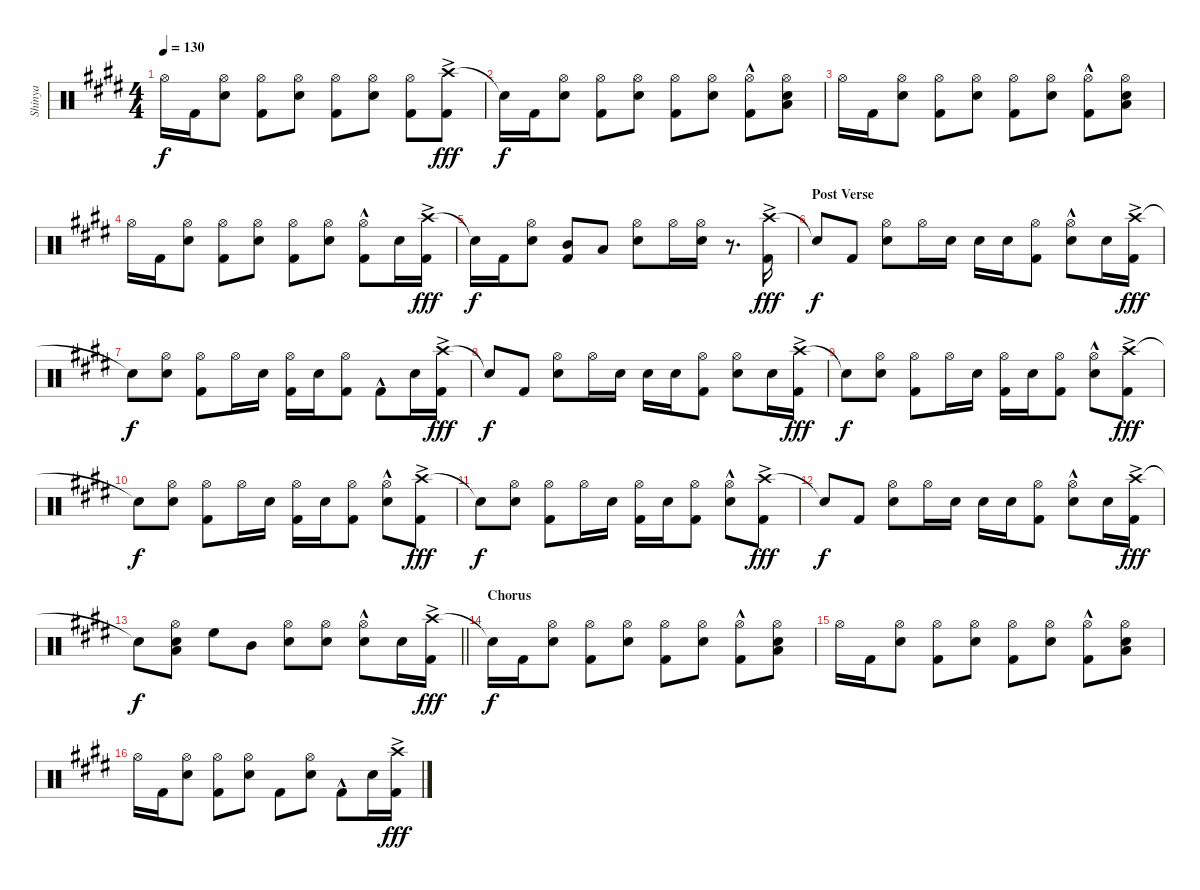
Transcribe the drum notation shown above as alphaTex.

\track ("Shinya" "Shinya") {instrument percussion}
\staff {score}
\articulation defaults
\ts (4 4)
\tempo 130
\clef neutral
\ks e "Hi-Hat (open)".16{dy f} "Kick (hit) 2".16
("Hi-Hat (open)" "Snare (hit) 2").8 ("Hi-Hat (open)" "Kick (hit) 2").8 ("Hi-Hat (open)" "Snare (hit) 2").8 ("Hi-Hat (open)" "Kick (hit) 2").8 ("Hi-Hat (open)" "Snare (hit) 2").8 ("Hi-Hat (open)" "Kick (hit) 2").8 ("Crash high (hit)"{ac} "Kick (hit) 2").8{dy fff} |
"Snare (hit)"{t}.16{dy f} "Kick (hit) 2".16 ("Hi-Hat (open)" "Snare (hit) 2").8 ("Hi-Hat (open)" "Kick (hit) 2").8 ("Hi-Hat (open)" "Snare (hit) 2").8 ("Hi-Hat (open)" "Kick (hit) 2").8 ("Hi-Hat (open)" "Snare (hit) 2").8 ("Hi-Hat (open)"{hac} "Kick (hit) 2").8 ("Hi-Hat (open)" "Low Floor Tom (hit)" "Snare (hit) 2").8 |
"Hi-Hat (open)".16 "Kick (hit) 2".16 ("Hi-Hat (open)" "Snare (hit) 2").8 ("Hi-Hat (open)" "Kick (hit) 2").8 ("Hi-Hat (open)" "Snare (hit) 2").8 ("Hi-Hat (open)" "Kick (hit) 2").8 ("Hi-Hat (open)" "Snare (hit) 2").8 ("Hi-Hat (open)"{hac} "Kick (hit) 2").8 ("Hi-Hat (open)" "Low Floor Tom (hit)" "Snare (hit) 2").8 |
"Hi-Hat (open)".16 "Kick (hit) 2".16 ("Hi-Hat (open)" "Snare (hit) 2").8 ("Hi-Hat (open)" "Kick (hit) 2").8 ("Hi-Hat (open)" "Snare (hit) 2").8 ("Hi-Hat (open)" "Kick (hit) 2").8 ("Hi-Hat (open)" "Snare (hit) 2").8 ("Hi-Hat (open)" "Kick (hit) 2"{hac}).8 "Snare (hit) 2".16 ("Crash high (hit)"{ac} "Kick (hit) 2").16{dy fff} |
"Snare (hit)"{t}.16{dy f} "Kick (hit) 2".16 ("Hi-Hat (open)" "Snare (hit) 2").8 ("Kick (hit) 2" "Mid Tom (hit)").8 "Low Tom (hit)".8 ("Hi-Hat (open)" "Snare (hit) 2").8 "Hi-Hat (open)".16 ("Hi-Hat (open)" "Snare (hit) 2").16 r.8{d} ("Crash high (hit)"{ac} "Kick (hit) 2").16{dy fff} |
\section ("" "Post Verse")
"Snare (hit)"{t}.8{dy f} "Kick (hit) 2".8 ("Hi-Hat (open)" "Snare (hit) 2").8 "Hi-Hat (open)".16 "Snare (hit) 2".16 "Snare (hit) 2".16 "Snare (hit) 2".16 ("Hi-Hat (open)" "Kick (hit) 2").8 ("Hi-Hat (open)" "Snare (hit) 2"{hac}).8 "Snare (hit) 2".16 ("Crash high (hit)"{ac} "Kick (hit) 2").16{dy fff} |
"Snare (hit)"{t}.8{dy f} ("Hi-Hat (open)" "Snare (hit) 2").8 ("Hi-Hat (open)" "Kick (hit) 2").8 "Hi-Hat (open)".16 "Snare (hit) 2".16 ("Hi-Hat (open)" "Kick (hit) 2").16 "Snare (hit) 2".16 ("Hi-Hat (open)" "Kick (hit) 2").8 "Kick (hit) 2"{hac}.8 "Snare (hit) 2".16 ("Crash high (hit)"{ac} "Kick (hit) 2").16{dy fff} |
"Snare (hit)"{t}.8{dy f} "Kick (hit) 2".8 ("Hi-Hat (open)" "Snare (hit) 2").8 "Hi-Hat (open)".16 "Snare (hit) 2".16 "Snare (hit) 2".16 "Snare (hit) 2".16 ("Hi-Hat (open)" "Kick (hit) 2").8 ("Hi-Hat (open)" "Snare (hit) 2").8 "Snare (hit) 2".16 ("Crash high (hit)"{ac} "Kick (hit) 2").16{dy fff} |
"Snare (hit)"{t}.8{dy f} ("Hi-Hat (open)" "Snare (hit) 2").8 ("Hi-Hat (open)" "Kick (hit) 2").8 "Hi-Hat (open)".16 "Snare (hit) 2".16 ("Hi-Hat (open)" "Kick (hit) 2").16 "Snare (hit) 2".16 ("Hi-Hat (open)" "Kick (hit) 2").8 ("Hi-Hat (open)"{hac} "Snare (hit) 2").8 ("Crash high (hit)"{ac} "Kick (hit) 2").8{dy fff} |
"Snare (hit)"{t}.8{dy f} ("Hi-Hat (open)" "Snare (hit) 2").8 ("Hi-Hat (open)" "Kick (hit) 2").8 "Hi-Hat (open)".16 "Snare (hit) 2".16 ("Hi-Hat (open)" "Kick (hit) 2").16 "Snare (hit) 2".16 ("Hi-Hat (open)" "Kick (hit) 2").8 ("Hi-Hat (open)"{hac} "Snare (hit) 2").8 ("Crash high (hit)"{ac} "Kick (hit) 2").8{dy fff} |
"Snare (hit)"{t}.8{dy f} ("Hi-Hat (open)" "Snare (hit) 2").8 ("Hi-Hat (open)" "Kick (hit) 2").8 "Hi-Hat (open)".16 "Snare (hit) 2".16 ("Hi-Hat (open)" "Kick (hit) 2").16 "Snare (hit) 2".16 ("Hi-Hat (open)" "Kick (hit) 2").8 ("Hi-Hat (open)"{hac} "Snare (hit) 2").8 ("Crash high (hit)"{ac} "Kick (hit) 2").8{dy fff} |
"Snare (hit)"{t}.8{dy f} "Kick (hit) 2".8 ("Hi-Hat (open)" "Snare (hit) 2").8 "Hi-Hat (open)".16 "Snare (hit) 2".16 "Snare (hit) 2".16 "Snare (hit) 2".16 ("Hi-Hat (open)" "Kick (hit) 2").8 ("Hi-Hat (open)" "Snare (hit) 2"{hac}).8 "Snare (hit) 2".16 ("Crash high (hit)"{ac} "Kick (hit) 2").16{dy fff} |
\barLineRight lightlight "Snare (hit)"{t}.8{dy f}
("Hi-Hat (open)" "Snare (hit) 2" "Low Floor Tom (hit)").8 "High Floor Tom (hit)".8 "Mid Tom (hit)".8 ("Hi-Hat (open)" "Snare (hit) 2").8 ("Hi-Hat (open)" "Snare (hit) 2").8 ("Hi-Hat (open)" "Snare (hit) 2"{hac}).8 "Snare (hit) 2".16 ("Crash high (hit)"{ac} "Kick (hit) 2").16{dy fff} |
\section ("" "Chorus")
"Snare (hit)"{t}.16{dy f} "Kick (hit) 2".16 ("Hi-Hat (open)" "Snare (hit) 2").8 ("Hi-Hat (open)" "Kick (hit) 2").8 ("Hi-Hat (open)" "Snare (hit) 2").8 ("Hi-Hat (open)" "Kick (hit) 2").8 ("Hi-Hat (open)" "Snare (hit) 2").8 ("Hi-Hat (open)" "Kick (hit) 2"{hac}).8 ("Hi-Hat (open)" "Low Floor Tom (hit)" "Snare (hit) 2").8 |
"Hi-Hat (open)".16 "Kick (hit) 2".16 ("Hi-Hat (open)" "Snare (hit) 2").8 ("Hi-Hat (open)" "Kick (hit) 2").8 ("Hi-Hat (open)" "Snare (hit) 2").8 ("Hi-Hat (open)" "Kick (hit) 2").8 ("Hi-Hat (open)" "Snare (hit) 2").8 ("Hi-Hat (open)" "Kick (hit) 2"{hac}).8 ("Hi-Hat (open)" "Low Floor Tom (hit)" "Snare (hit) 2").8 |
"Hi-Hat (open)".16 "Kick (hit) 2".16 ("Hi-Hat (open)" "Snare (hit) 2").8 ("Hi-Hat (open)" "Kick (hit) 2").8 ("Hi-Hat (open)" "Snare (hit) 2").8 "Kick (hit) 2".8 ("Hi-Hat (open)" "Snare (hit) 2").8 "Kick (hit) 2"{hac}.8 "Snare (hit) 2".16 ("Crash high (hit)"{ac} "Kick (hit) 2").16{dy fff}
